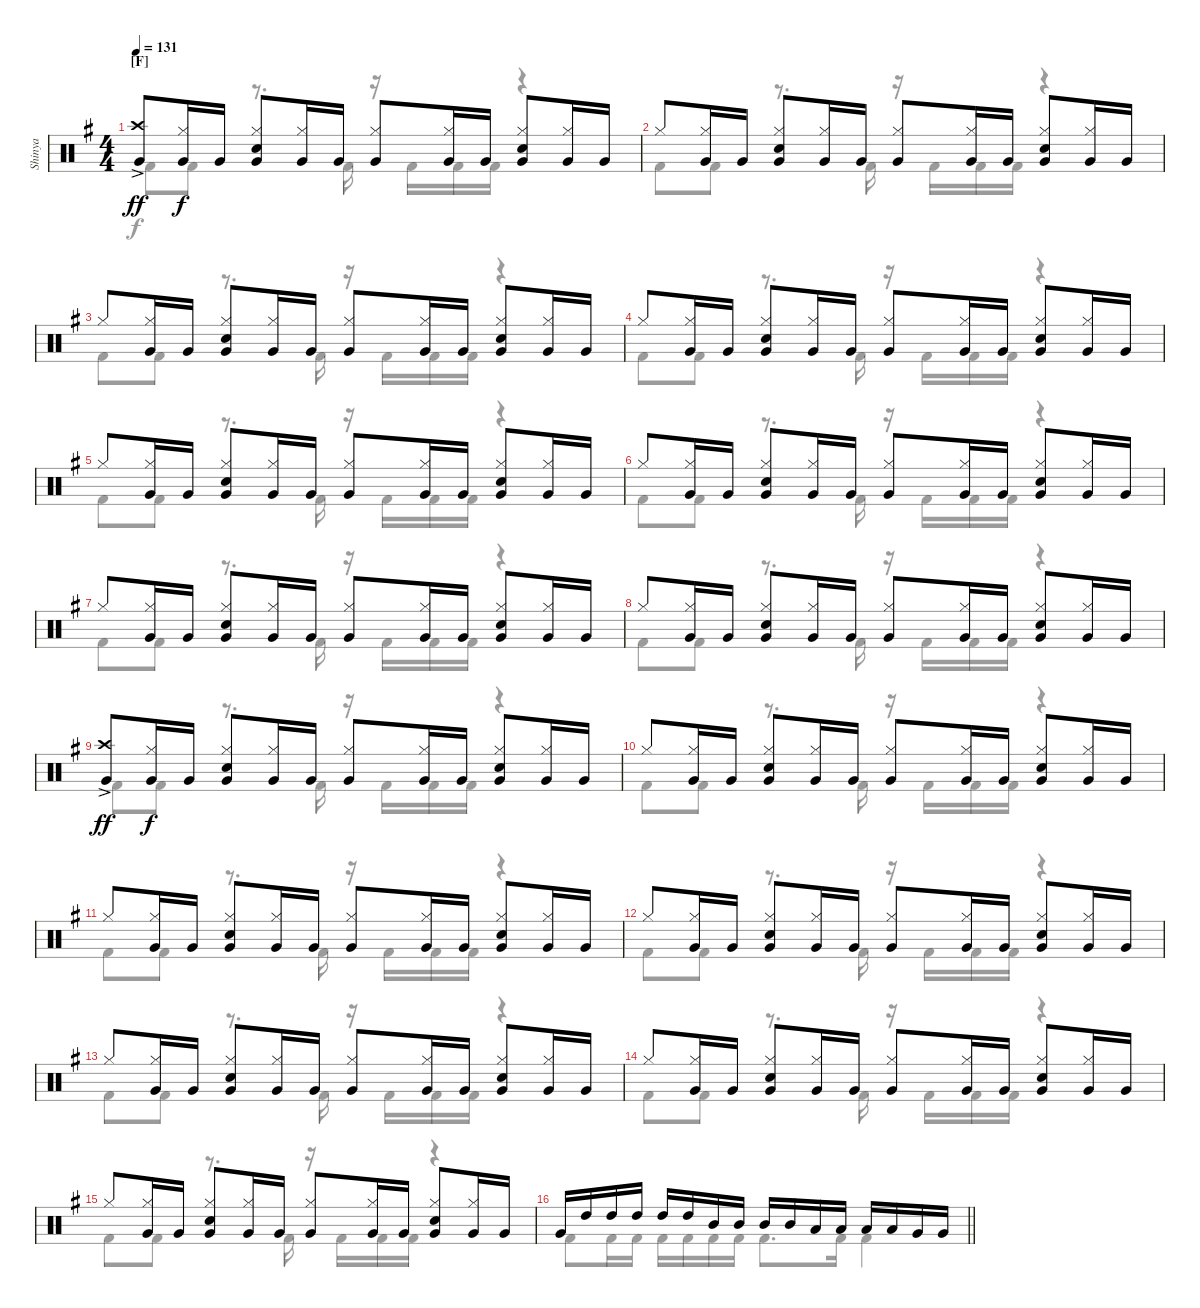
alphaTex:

\track ("Shinya" "Shinya") {instrument percussion}
\staff {score}
\articulation defaults
\voice
\ts (4 4)
\section ("" "[F]")
\tempo 131
\clef neutral
\ks eminor
("Crash high (hit)"{ac} "Very Low Tom (hit)").8{dy ff} ("Hi-Hat (closed)" "Very Low Tom (hit)").16{dy f} "Very Low Tom (hit)".16 ("Hi-Hat (closed)" "Snare (hit) 2" "Very Low Tom (hit)").8 ("Hi-Hat (closed)" "Very Low Tom (hit)").16 "Very Low Tom (hit)".16 ("Hi-Hat (closed)" "Very Low Tom (hit)").8 ("Hi-Hat (closed)" "Very Low Tom (hit)").16 "Very Low Tom (hit)".16 ("Hi-Hat (closed)" "Snare (hit) 2" "Very Low Tom (hit)").8 ("Hi-Hat (closed)" "Very Low Tom (hit)").16 "Very Low Tom (hit)".16 |
"Hi-Hat (closed)".8 ("Hi-Hat (closed)" "Very Low Tom (hit)").16 "Very Low Tom (hit)".16 ("Hi-Hat (closed)" "Snare (hit) 2" "Very Low Tom (hit)").8 ("Hi-Hat (closed)" "Very Low Tom (hit)").16 "Very Low Tom (hit)".16 ("Hi-Hat (closed)" "Very Low Tom (hit)").8 ("Hi-Hat (closed)" "Very Low Tom (hit)").16 "Very Low Tom (hit)".16 ("Hi-Hat (closed)" "Snare (hit) 2" "Very Low Tom (hit)").8 ("Hi-Hat (closed)" "Very Low Tom (hit)").16 "Very Low Tom (hit)".16 |
"Hi-Hat (closed)".8 ("Hi-Hat (closed)" "Very Low Tom (hit)").16 "Very Low Tom (hit)".16 ("Hi-Hat (closed)" "Snare (hit) 2" "Very Low Tom (hit)").8 ("Hi-Hat (closed)" "Very Low Tom (hit)").16 "Very Low Tom (hit)".16 ("Hi-Hat (closed)" "Very Low Tom (hit)").8 ("Hi-Hat (closed)" "Very Low Tom (hit)").16 "Very Low Tom (hit)".16 ("Hi-Hat (closed)" "Snare (hit) 2" "Very Low Tom (hit)").8 ("Hi-Hat (closed)" "Very Low Tom (hit)").16 "Very Low Tom (hit)".16 |
"Hi-Hat (closed)".8 ("Hi-Hat (closed)" "Very Low Tom (hit)").16 "Very Low Tom (hit)".16 ("Hi-Hat (closed)" "Snare (hit) 2" "Very Low Tom (hit)").8 ("Hi-Hat (closed)" "Very Low Tom (hit)").16 "Very Low Tom (hit)".16 ("Hi-Hat (closed)" "Very Low Tom (hit)").8 ("Hi-Hat (closed)" "Very Low Tom (hit)").16 "Very Low Tom (hit)".16 ("Hi-Hat (closed)" "Snare (hit) 2" "Very Low Tom (hit)").8 ("Hi-Hat (closed)" "Very Low Tom (hit)").16 "Very Low Tom (hit)".16 |
"Hi-Hat (closed)".8 ("Hi-Hat (closed)" "Very Low Tom (hit)").16 "Very Low Tom (hit)".16 ("Hi-Hat (closed)" "Snare (hit) 2" "Very Low Tom (hit)").8 ("Hi-Hat (closed)" "Very Low Tom (hit)").16 "Very Low Tom (hit)".16 ("Hi-Hat (closed)" "Very Low Tom (hit)").8 ("Hi-Hat (closed)" "Very Low Tom (hit)").16 "Very Low Tom (hit)".16 ("Hi-Hat (closed)" "Snare (hit) 2" "Very Low Tom (hit)").8 ("Hi-Hat (closed)" "Very Low Tom (hit)").16 "Very Low Tom (hit)".16 |
"Hi-Hat (closed)".8 ("Hi-Hat (closed)" "Very Low Tom (hit)").16 "Very Low Tom (hit)".16 ("Hi-Hat (closed)" "Snare (hit) 2" "Very Low Tom (hit)").8 ("Hi-Hat (closed)" "Very Low Tom (hit)").16 "Very Low Tom (hit)".16 ("Hi-Hat (closed)" "Very Low Tom (hit)").8 ("Hi-Hat (closed)" "Very Low Tom (hit)").16 "Very Low Tom (hit)".16 ("Hi-Hat (closed)" "Snare (hit) 2" "Very Low Tom (hit)").8 ("Hi-Hat (closed)" "Very Low Tom (hit)").16 "Very Low Tom (hit)".16 |
"Hi-Hat (closed)".8 ("Hi-Hat (closed)" "Very Low Tom (hit)").16 "Very Low Tom (hit)".16 ("Hi-Hat (closed)" "Snare (hit) 2" "Very Low Tom (hit)").8 ("Hi-Hat (closed)" "Very Low Tom (hit)").16 "Very Low Tom (hit)".16 ("Hi-Hat (closed)" "Very Low Tom (hit)").8 ("Hi-Hat (closed)" "Very Low Tom (hit)").16 "Very Low Tom (hit)".16 ("Hi-Hat (closed)" "Snare (hit) 2" "Very Low Tom (hit)").8 ("Hi-Hat (closed)" "Very Low Tom (hit)").16 "Very Low Tom (hit)".16 |
"Hi-Hat (closed)".8 ("Hi-Hat (closed)" "Very Low Tom (hit)").16 "Very Low Tom (hit)".16 ("Hi-Hat (closed)" "Snare (hit) 2" "Very Low Tom (hit)").8 ("Hi-Hat (closed)" "Very Low Tom (hit)").16 "Very Low Tom (hit)".16 ("Hi-Hat (closed)" "Very Low Tom (hit)").8 ("Hi-Hat (closed)" "Very Low Tom (hit)").16 "Very Low Tom (hit)".16 ("Hi-Hat (closed)" "Snare (hit) 2" "Very Low Tom (hit)").8 ("Hi-Hat (closed)" "Very Low Tom (hit)").16 "Very Low Tom (hit)".16 |
("Crash high (hit)"{ac} "Very Low Tom (hit)").8{dy ff} ("Hi-Hat (closed)" "Very Low Tom (hit)").16{dy f} "Very Low Tom (hit)".16 ("Hi-Hat (closed)" "Snare (hit) 2" "Very Low Tom (hit)").8 ("Hi-Hat (closed)" "Very Low Tom (hit)").16 "Very Low Tom (hit)".16 ("Hi-Hat (closed)" "Very Low Tom (hit)").8 ("Hi-Hat (closed)" "Very Low Tom (hit)").16 "Very Low Tom (hit)".16 ("Hi-Hat (closed)" "Snare (hit) 2" "Very Low Tom (hit)").8 ("Hi-Hat (closed)" "Very Low Tom (hit)").16 "Very Low Tom (hit)".16 |
"Hi-Hat (closed)".8 ("Hi-Hat (closed)" "Very Low Tom (hit)").16 "Very Low Tom (hit)".16 ("Hi-Hat (closed)" "Snare (hit) 2" "Very Low Tom (hit)").8 ("Hi-Hat (closed)" "Very Low Tom (hit)").16 "Very Low Tom (hit)".16 ("Hi-Hat (closed)" "Very Low Tom (hit)").8 ("Hi-Hat (closed)" "Very Low Tom (hit)").16 "Very Low Tom (hit)".16 ("Hi-Hat (closed)" "Snare (hit) 2" "Very Low Tom (hit)").8 ("Hi-Hat (closed)" "Very Low Tom (hit)").16 "Very Low Tom (hit)".16 |
"Hi-Hat (closed)".8 ("Hi-Hat (closed)" "Very Low Tom (hit)").16 "Very Low Tom (hit)".16 ("Hi-Hat (closed)" "Snare (hit) 2" "Very Low Tom (hit)").8 ("Hi-Hat (closed)" "Very Low Tom (hit)").16 "Very Low Tom (hit)".16 ("Hi-Hat (closed)" "Very Low Tom (hit)").8 ("Hi-Hat (closed)" "Very Low Tom (hit)").16 "Very Low Tom (hit)".16 ("Hi-Hat (closed)" "Snare (hit) 2" "Very Low Tom (hit)").8 ("Hi-Hat (closed)" "Very Low Tom (hit)").16 "Very Low Tom (hit)".16 |
"Hi-Hat (closed)".8 ("Hi-Hat (closed)" "Very Low Tom (hit)").16 "Very Low Tom (hit)".16 ("Hi-Hat (closed)" "Snare (hit) 2" "Very Low Tom (hit)").8 ("Hi-Hat (closed)" "Very Low Tom (hit)").16 "Very Low Tom (hit)".16 ("Hi-Hat (closed)" "Very Low Tom (hit)").8 ("Hi-Hat (closed)" "Very Low Tom (hit)").16 "Very Low Tom (hit)".16 ("Hi-Hat (closed)" "Snare (hit) 2" "Very Low Tom (hit)").8 ("Hi-Hat (closed)" "Very Low Tom (hit)").16 "Very Low Tom (hit)".16 |
"Hi-Hat (closed)".8 ("Hi-Hat (closed)" "Very Low Tom (hit)").16 "Very Low Tom (hit)".16 ("Hi-Hat (closed)" "Snare (hit) 2" "Very Low Tom (hit)").8 ("Hi-Hat (closed)" "Very Low Tom (hit)").16 "Very Low Tom (hit)".16 ("Hi-Hat (closed)" "Very Low Tom (hit)").8 ("Hi-Hat (closed)" "Very Low Tom (hit)").16 "Very Low Tom (hit)".16 ("Hi-Hat (closed)" "Snare (hit) 2" "Very Low Tom (hit)").8 ("Hi-Hat (closed)" "Very Low Tom (hit)").16 "Very Low Tom (hit)".16 |
"Hi-Hat (closed)".8 ("Hi-Hat (closed)" "Very Low Tom (hit)").16 "Very Low Tom (hit)".16 ("Hi-Hat (closed)" "Snare (hit) 2" "Very Low Tom (hit)").8 ("Hi-Hat (closed)" "Very Low Tom (hit)").16 "Very Low Tom (hit)".16 ("Hi-Hat (closed)" "Very Low Tom (hit)").8 ("Hi-Hat (closed)" "Very Low Tom (hit)").16 "Very Low Tom (hit)".16 ("Hi-Hat (closed)" "Snare (hit) 2" "Very Low Tom (hit)").8 ("Hi-Hat (closed)" "Very Low Tom (hit)").16 "Very Low Tom (hit)".16 |
"Hi-Hat (closed)".8 ("Hi-Hat (closed)" "Very Low Tom (hit)").16 "Very Low Tom (hit)".16 ("Hi-Hat (closed)" "Snare (hit) 2" "Very Low Tom (hit)").8 ("Hi-Hat (closed)" "Very Low Tom (hit)").16 "Very Low Tom (hit)".16 ("Hi-Hat (closed)" "Very Low Tom (hit)").8 ("Hi-Hat (closed)" "Very Low Tom (hit)").16 "Very Low Tom (hit)".16 ("Hi-Hat (closed)" "Snare (hit) 2" "Very Low Tom (hit)").8 ("Hi-Hat (closed)" "Very Low Tom (hit)").16 "Very Low Tom (hit)".16 |
\barLineRight lightlight "Very Low Tom (hit)".16 "High Tom (hit)".16 "High Tom (hit)".16 "High Tom (hit)".16 "High Tom (hit)".16 "High Tom (hit)".16 "Mid Tom (hit)".16 "Mid Tom (hit)".16 "Mid Tom (hit)".16 "Mid Tom (hit)".16 "Low Tom (hit)".16 "Low Tom (hit)".16 "Low Tom (hit)".16 "Low Tom (hit)".16 "Very Low Tom (hit)".16 "Very Low Tom (hit)".16
\voice
\clef neutral
\ottava regular
\simile none
\ks eminor "Kick (hit) 2".8{dy f} "Kick (hit) 2".8
r.8{d} "Kick (hit) 2".16 r.16 "Kick (hit) 2".16 "Kick (hit) 2".16 "Kick (hit) 2".16 r.4 |
"Kick (hit) 2".8 "Kick (hit) 2".8 r.8{d} "Kick (hit) 2".16 r.16 "Kick (hit) 2".16 "Kick (hit) 2".16 "Kick (hit) 2".16 r.4 |
"Kick (hit) 2".8 "Kick (hit) 2".8 r.8{d} "Kick (hit) 2".16 r.16 "Kick (hit) 2".16 "Kick (hit) 2".16 "Kick (hit) 2".16 r.4 |
"Kick (hit) 2".8 "Kick (hit) 2".8 r.8{d} "Kick (hit) 2".16 r.16 "Kick (hit) 2".16 "Kick (hit) 2".16 "Kick (hit) 2".16 r.4 |
"Kick (hit) 2".8 "Kick (hit) 2".8 r.8{d} "Kick (hit) 2".16 r.16 "Kick (hit) 2".16 "Kick (hit) 2".16 "Kick (hit) 2".16 r.4 |
"Kick (hit) 2".8 "Kick (hit) 2".8 r.8{d} "Kick (hit) 2".16 r.16 "Kick (hit) 2".16 "Kick (hit) 2".16 "Kick (hit) 2".16 r.4 |
"Kick (hit) 2".8 "Kick (hit) 2".8 r.8{d} "Kick (hit) 2".16 r.16 "Kick (hit) 2".16 "Kick (hit) 2".16 "Kick (hit) 2".16 r.4 |
"Kick (hit) 2".8 "Kick (hit) 2".8 r.8{d} "Kick (hit) 2".16 r.16 "Kick (hit) 2".16 "Kick (hit) 2".16 "Kick (hit) 2".16 r.4 |
"Kick (hit) 2".8 "Kick (hit) 2".8 r.8{d} "Kick (hit) 2".16 r.16 "Kick (hit) 2".16 "Kick (hit) 2".16 "Kick (hit) 2".16 r.4 |
"Kick (hit) 2".8 "Kick (hit) 2".8 r.8{d} "Kick (hit) 2".16 r.16 "Kick (hit) 2".16 "Kick (hit) 2".16 "Kick (hit) 2".16 r.4 |
"Kick (hit) 2".8 "Kick (hit) 2".8 r.8{d} "Kick (hit) 2".16 r.16 "Kick (hit) 2".16 "Kick (hit) 2".16 "Kick (hit) 2".16 r.4 |
"Kick (hit) 2".8 "Kick (hit) 2".8 r.8{d} "Kick (hit) 2".16 r.16 "Kick (hit) 2".16 "Kick (hit) 2".16 "Kick (hit) 2".16 r.4 |
"Kick (hit) 2".8 "Kick (hit) 2".8 r.8{d} "Kick (hit) 2".16 r.16 "Kick (hit) 2".16 "Kick (hit) 2".16 "Kick (hit) 2".16 r.4 |
"Kick (hit) 2".8 "Kick (hit) 2".8 r.8{d} "Kick (hit) 2".16 r.16 "Kick (hit) 2".16 "Kick (hit) 2".16 "Kick (hit) 2".16 r.4 |
"Kick (hit) 2".8 "Kick (hit) 2".8 r.8{d} "Kick (hit) 2".16 r.16 "Kick (hit) 2".16 "Kick (hit) 2".16 "Kick (hit) 2".16 r.4 |
\barLineRight lightlight "Kick (hit) 2".8 "Kick (hit) 2".16 "Kick (hit) 2".16 "Kick (hit) 2".16 "Kick (hit) 2".16 "Kick (hit) 2".16 "Kick (hit) 2".16 "Kick (hit) 2".8{d} "Kick (hit) 2".16 "Kick (hit) 2".4
